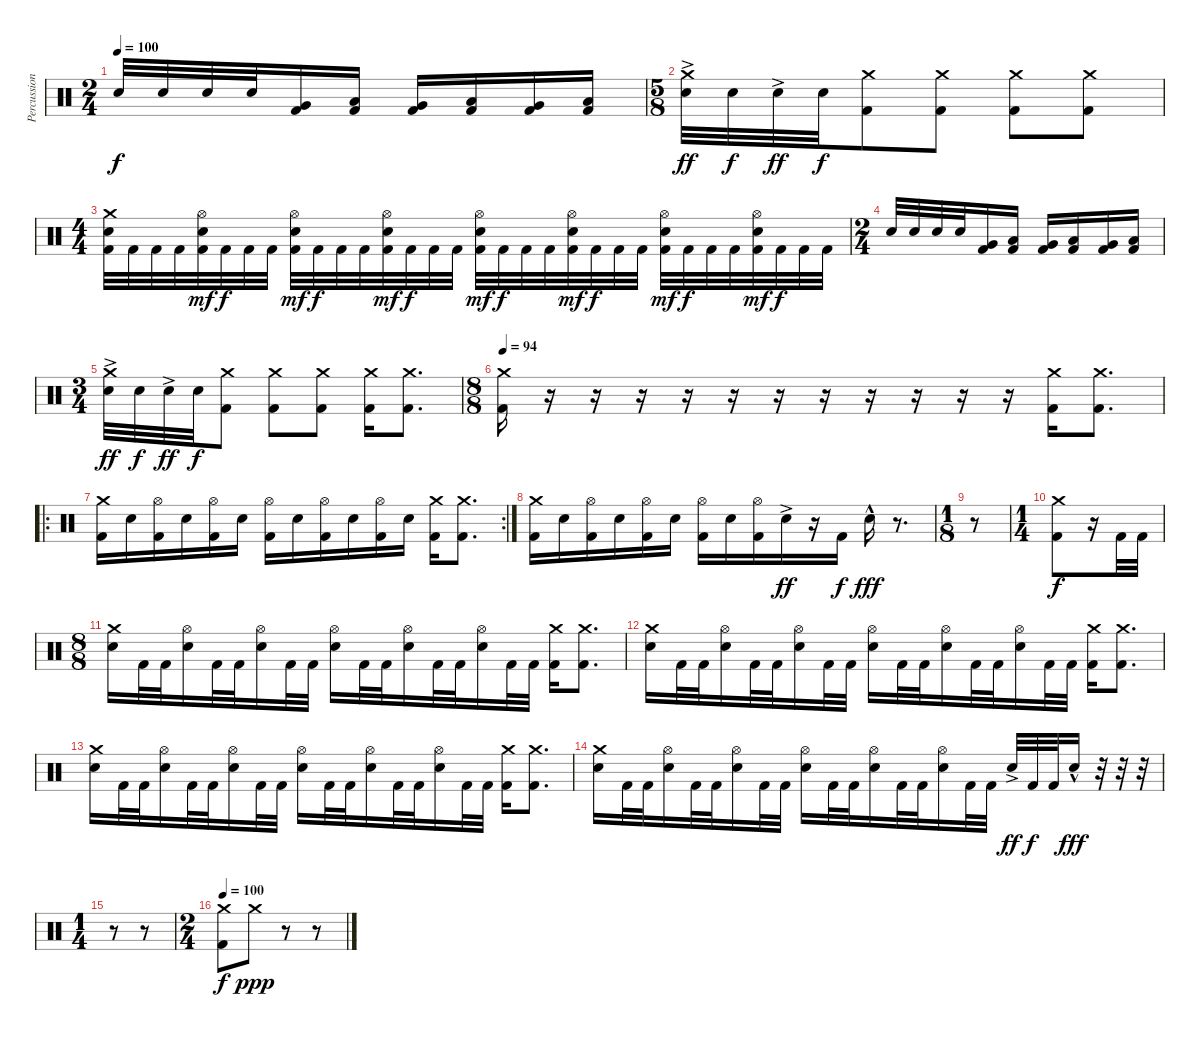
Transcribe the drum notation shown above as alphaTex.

\track ("Percussion" "Percussion") {instrument percussion}
\staff {score}
\articulation defaults
\ts (2 4)
\tempo 100
\clef neutral
\ks c "Electric Snare (hit)".32{dy f} "Electric Snare (hit)".32 "Electric Snare (hit)".32 "Electric Snare (hit)".32
("Very Low Tom (hit)" "Kick (hit) 2").16 ("Low Floor Tom (hit)" "Kick (hit) 2").16 ("Very Low Tom (hit)" "Kick (hit) 2").16 ("Low Tom (hit)" "Kick (hit) 2").16 ("Very Low Tom (hit)" "Kick (hit) 2").16 ("Low Tom (hit)" "Kick (hit) 2").16 |
\ts (5 8)
("Crash medium (hit)" "Electric Snare (hit)"{ac}).32{dy ff} "Electric Snare (hit)".32{dy f} "Electric Snare (hit)"{ac}.32{dy ff} "Electric Snare (hit)".32{dy f} ("Crash medium (hit)" "Kick (hit) 2").8 ("Crash medium (hit)" "Kick (hit) 2").8 ("Crash medium (hit)" "Kick (hit) 2").8 ("Crash medium (hit)" "Kick (hit) 2").8 |
\ts (4 4)
("Crash medium (hit)" "Electric Snare (hit)" "Kick (hit) 2").32 "Kick (hit) 2".32 "Kick (hit) 2".32 "Kick (hit) 2".32 ("Hi-Hat (open)" "Electric Snare (hit)" "Kick (hit) 2").32{dy mf} "Kick (hit) 2".32{dy f} "Kick (hit) 2".32 "Kick (hit) 2".32 ("Hi-Hat (open)" "Electric Snare (hit)" "Kick (hit) 2").32{dy mf} "Kick (hit) 2".32{dy f} "Kick (hit) 2".32 "Kick (hit) 2".32 ("Hi-Hat (open)" "Electric Snare (hit)" "Kick (hit) 2").32{dy mf} "Kick (hit) 2".32{dy f} "Kick (hit) 2".32 "Kick (hit) 2".32 ("Hi-Hat (open)" "Electric Snare (hit)" "Kick (hit) 2").32{dy mf} "Kick (hit) 2".32{dy f} "Kick (hit) 2".32 "Kick (hit) 2".32 ("Hi-Hat (open)" "Electric Snare (hit)" "Kick (hit) 2").32{dy mf} "Kick (hit) 2".32{dy f} "Kick (hit) 2".32 "Kick (hit) 2".32 ("Hi-Hat (open)" "Electric Snare (hit)" "Kick (hit) 2").32{dy mf} "Kick (hit) 2".32{dy f} "Kick (hit) 2".32 "Kick (hit) 2".32 ("Hi-Hat (open)" "Electric Snare (hit)" "Kick (hit) 2").32{dy mf} "Kick (hit) 2".32{dy f} "Kick (hit) 2".32 "Kick (hit) 2".32 |
\ts (2 4)
"Electric Snare (hit)".32 "Electric Snare (hit)".32 "Electric Snare (hit)".32 "Electric Snare (hit)".32 ("Very Low Tom (hit)" "Kick (hit) 2").16 ("Low Floor Tom (hit)" "Kick (hit) 2").16 ("Very Low Tom (hit)" "Kick (hit) 2").16 ("Low Tom (hit)" "Kick (hit) 2").16 ("Very Low Tom (hit)" "Kick (hit) 2").16 ("Low Tom (hit)" "Kick (hit) 2").16 |
\ts (3 4)
("Crash medium (hit)" "Electric Snare (hit)"{ac}).32{dy ff} "Electric Snare (hit)".32{dy f} "Electric Snare (hit)"{ac}.32{dy ff} "Electric Snare (hit)".32{dy f} ("Crash medium (hit)" "Kick (hit) 2").8 ("Crash medium (hit)" "Kick (hit) 2").8 ("Crash medium (hit)" "Kick (hit) 2").8 ("Crash medium (hit)" "Kick (hit) 2").16 ("Crash medium (hit)" "Kick (hit) 2").8{d} |
\ts (8 8)
\tempo 94
("Crash medium (hit)" "Kick (hit) 2").16 r.16 r.16 r.16 r.16 r.16 r.16 r.16 r.16 r.16 r.16 r.16 ("Crash medium (hit)" "Kick (hit) 2").16 ("Crash medium (hit)" "Kick (hit) 2").8{d} |
\ro
\rc 2
("Crash medium (hit)" "Kick (hit) 2").16 "Electric Snare (hit)".16 ("Hi-Hat (open)" "Kick (hit) 2").16 "Electric Snare (hit)".16 ("Hi-Hat (open)" "Kick (hit) 2").16 "Electric Snare (hit)".16 ("Hi-Hat (open)" "Kick (hit) 2").16 "Electric Snare (hit)".16 ("Hi-Hat (open)" "Kick (hit) 2").16 "Electric Snare (hit)".16 ("Hi-Hat (open)" "Kick (hit) 2").16 "Electric Snare (hit)".16 ("Crash medium (hit)" "Kick (hit) 2").16 ("Crash medium (hit)" "Kick (hit) 2").8{d} |
("Crash medium (hit)" "Kick (hit) 2").16 "Electric Snare (hit)".16 ("Hi-Hat (open)" "Kick (hit) 2").16 "Electric Snare (hit)".16 ("Hi-Hat (open)" "Kick (hit) 2").16 "Electric Snare (hit)".16 ("Hi-Hat (open)" "Kick (hit) 2").16 "Electric Snare (hit)".16 ("Hi-Hat (open)" "Kick (hit) 2").16 "Electric Snare (hit)"{ac}.16{dy ff} r.16 "Kick (hit) 2".16{dy f} "Electric Snare (hit)"{hac}.16{dy fff} r.8{d} |
\ts (1 8)
r.8 |
\ts (1 4)
("Crash medium (hit)" "Kick (hit) 2").8{dy f} r.16 "Kick (hit) 2".32 "Kick (hit) 2".32 |
\ts (8 8)
("Crash medium (hit)" "Electric Snare (hit)").16 "Kick (hit) 2".32 "Kick (hit) 2".32 ("Hi-Hat (open)" "Electric Snare (hit)").16 "Kick (hit) 2".32 "Kick (hit) 2".32 ("Hi-Hat (open)" "Electric Snare (hit)").16 "Kick (hit) 2".32 "Kick (hit) 2".32 ("Hi-Hat (open)" "Electric Snare (hit)").16 "Kick (hit) 2".32 "Kick (hit) 2".32 ("Hi-Hat (open)" "Electric Snare (hit)").16 "Kick (hit) 2".32 "Kick (hit) 2".32 ("Hi-Hat (open)" "Electric Snare (hit)").16 "Kick (hit) 2".32 "Kick (hit) 2".32 ("Crash medium (hit)" "Kick (hit) 2").16 ("Crash medium (hit)" "Kick (hit) 2").8{d} |
("Crash medium (hit)" "Electric Snare (hit)").16 "Kick (hit) 2".32 "Kick (hit) 2".32 ("Hi-Hat (open)" "Electric Snare (hit)").16 "Kick (hit) 2".32 "Kick (hit) 2".32 ("Hi-Hat (open)" "Electric Snare (hit)").16 "Kick (hit) 2".32 "Kick (hit) 2".32 ("Hi-Hat (open)" "Electric Snare (hit)").16 "Kick (hit) 2".32 "Kick (hit) 2".32 ("Hi-Hat (open)" "Electric Snare (hit)").16 "Kick (hit) 2".32 "Kick (hit) 2".32 ("Hi-Hat (open)" "Electric Snare (hit)").16 "Kick (hit) 2".32 "Kick (hit) 2".32 ("Crash medium (hit)" "Kick (hit) 2").16 ("Crash medium (hit)" "Kick (hit) 2").8{d} |
("Crash medium (hit)" "Electric Snare (hit)").16 "Kick (hit) 2".32 "Kick (hit) 2".32 ("Hi-Hat (open)" "Electric Snare (hit)").16 "Kick (hit) 2".32 "Kick (hit) 2".32 ("Hi-Hat (open)" "Electric Snare (hit)").16 "Kick (hit) 2".32 "Kick (hit) 2".32 ("Hi-Hat (open)" "Electric Snare (hit)").16 "Kick (hit) 2".32 "Kick (hit) 2".32 ("Hi-Hat (open)" "Electric Snare (hit)").16 "Kick (hit) 2".32 "Kick (hit) 2".32 ("Hi-Hat (open)" "Electric Snare (hit)").16 "Kick (hit) 2".32 "Kick (hit) 2".32 ("Crash medium (hit)" "Kick (hit) 2").16 ("Crash medium (hit)" "Kick (hit) 2").8{d} |
("Crash medium (hit)" "Electric Snare (hit)").16 "Kick (hit) 2".32 "Kick (hit) 2".32 ("Hi-Hat (open)" "Electric Snare (hit)").16 "Kick (hit) 2".32 "Kick (hit) 2".32 ("Hi-Hat (open)" "Electric Snare (hit)").16 "Kick (hit) 2".32 "Kick (hit) 2".32 ("Hi-Hat (open)" "Electric Snare (hit)").16 "Kick (hit) 2".32 "Kick (hit) 2".32 ("Hi-Hat (open)" "Electric Snare (hit)").16 "Kick (hit) 2".32 "Kick (hit) 2".32 ("Hi-Hat (open)" "Electric Snare (hit)").16 "Kick (hit) 2".32 "Kick (hit) 2".32 "Electric Snare (hit)"{ac}.32{dy ff} "Kick (hit) 2".32{dy f} "Kick (hit) 2".32 "Electric Snare (hit)"{hac}.16{dy fff} r.32 r.32 r.32 |
\ts (1 4)
r.8 r.8 |
\ts (2 4)
\tempo 100
("Crash medium (hit)" "Kick (hit) 2").8{dy f} "Crash medium (hit)".8{dy ppp} r.8 r.8
